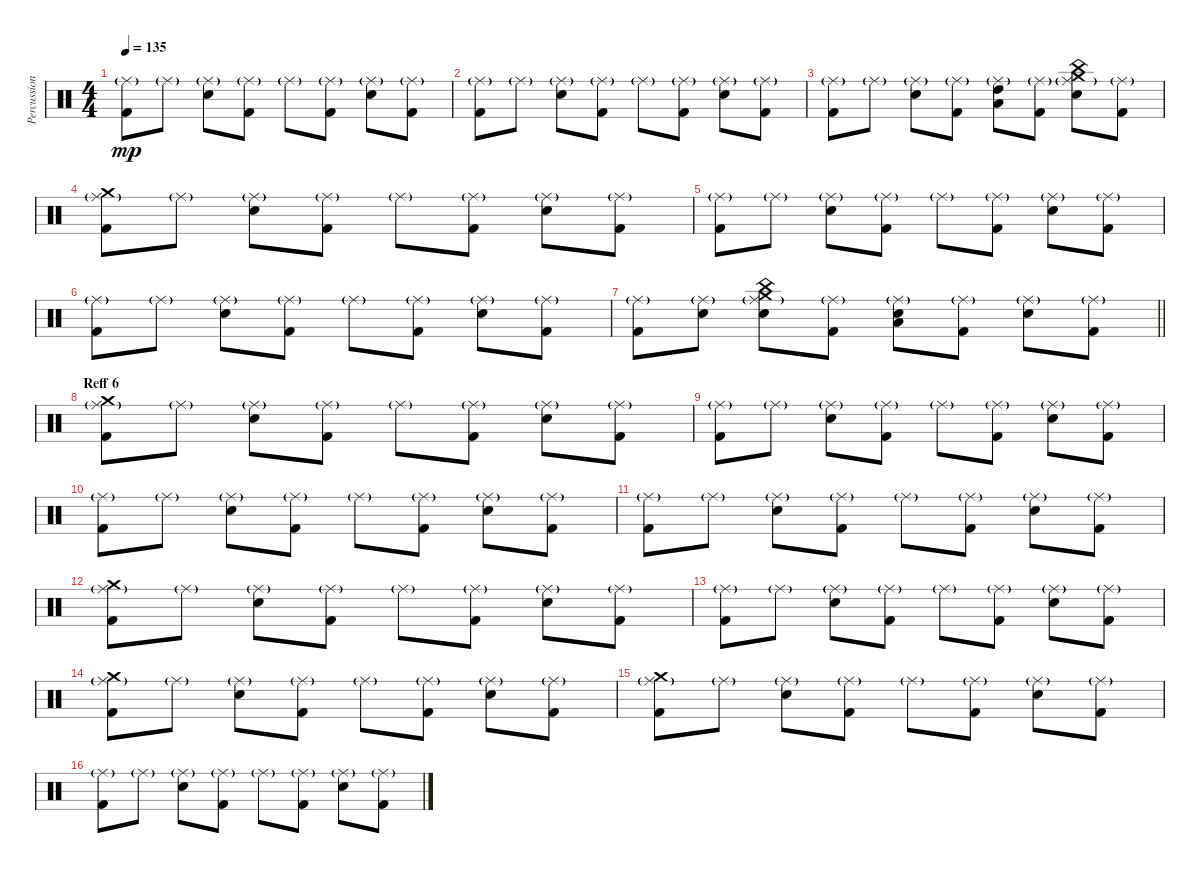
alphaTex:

\track ("Percussion 1" "Percussion") {instrument percussion}
\staff {score}
\articulation defaults
\ts (4 4)
\tempo 135
\clef neutral
\ks c
("Ride (middle)"{g} "Kick (hit) 2").8{dy mp} "Ride (middle)"{g}.8 ("Ride (middle)"{g} "Electric Snare (hit)").8 ("Ride (middle)"{g} "Kick (hit) 2").8 "Ride (middle)"{g}.8 ("Ride (middle)"{g} "Kick (hit) 2").8 ("Ride (middle)"{g} "Electric Snare (hit)").8 ("Ride (middle)"{g} "Kick (hit) 2").8 |
("Ride (middle)"{g} "Kick (hit) 2").8 "Ride (middle)"{g}.8 ("Ride (middle)"{g} "Electric Snare (hit)").8 ("Ride (middle)"{g} "Kick (hit) 2").8 "Ride (middle)"{g}.8 ("Ride (middle)"{g} "Kick (hit) 2").8 ("Ride (middle)"{g} "Electric Snare (hit)").8 ("Ride (middle)"{g} "Kick (hit) 2").8 |
("Ride (middle)"{g} "Kick (hit) 2").8 "Ride (middle)"{g}.8 ("Ride (middle)"{g} "Electric Snare (hit)").8 ("Ride (middle)"{g} "Kick (hit) 2").8 ("Ride (middle)"{g} "Low Tom (hit)" "High Tom (hit)").8 ("Ride (middle)"{g} "Kick (hit) 2").8 ("Ride (middle)"{g} "Electric Snare (hit)" "Crash medium (hit)" "China (hit)").8 ("Ride (middle)"{g} "Kick (hit) 2").8 |
("Ride (middle)"{g} "Crash medium (hit)" "Kick (hit) 2").8 "Ride (middle)"{g}.8 ("Ride (middle)"{g} "Electric Snare (hit)").8 ("Ride (middle)"{g} "Kick (hit) 2").8 "Ride (middle)"{g}.8 ("Ride (middle)"{g} "Kick (hit) 2").8 ("Ride (middle)"{g} "Electric Snare (hit)").8 ("Ride (middle)"{g} "Kick (hit) 2").8 |
("Ride (middle)"{g} "Kick (hit) 2").8 "Ride (middle)"{g}.8 ("Ride (middle)"{g} "Electric Snare (hit)").8 ("Ride (middle)"{g} "Kick (hit) 2").8 "Ride (middle)"{g}.8 ("Ride (middle)"{g} "Kick (hit) 2").8 ("Ride (middle)"{g} "Electric Snare (hit)").8 ("Ride (middle)"{g} "Kick (hit) 2").8 |
("Ride (middle)"{g} "Kick (hit) 2").8 "Ride (middle)"{g}.8 ("Ride (middle)"{g} "Electric Snare (hit)").8 ("Ride (middle)"{g} "Kick (hit) 2").8 "Ride (middle)"{g}.8 ("Ride (middle)"{g} "Kick (hit) 2").8 ("Ride (middle)"{g} "Electric Snare (hit)").8 ("Ride (middle)"{g} "Kick (hit) 2").8 |
\barLineRight lightlight
("Ride (middle)"{g} "Kick (hit) 2").8 ("Ride (middle)"{g} "Electric Snare (hit)").8 ("Ride (middle)"{g} "Electric Snare (hit)" "Crash medium (hit)" "China (hit)").8 ("Ride (middle)"{g} "Kick (hit) 2").8 ("Ride (middle)"{g} "Electric Snare (hit)" "Low Tom (hit)").8 ("Ride (middle)"{g} "Kick (hit) 2").8 ("Ride (middle)"{g} "Electric Snare (hit)").8 ("Ride (middle)"{g} "Kick (hit) 2").8 |
\section ("" "Reff 6")
("Ride (middle)"{g} "Crash medium (hit)" "Kick (hit) 2").8 "Ride (middle)"{g}.8 ("Ride (middle)"{g} "Electric Snare (hit)").8 ("Ride (middle)"{g} "Kick (hit) 2").8 "Ride (middle)"{g}.8 ("Ride (middle)"{g} "Kick (hit) 2").8 ("Ride (middle)"{g} "Electric Snare (hit)").8 ("Ride (middle)"{g} "Kick (hit) 2").8 |
("Ride (middle)"{g} "Kick (hit) 2").8 "Ride (middle)"{g}.8 ("Ride (middle)"{g} "Electric Snare (hit)").8 ("Ride (middle)"{g} "Kick (hit) 2").8 "Ride (middle)"{g}.8 ("Ride (middle)"{g} "Kick (hit) 2").8 ("Ride (middle)"{g} "Electric Snare (hit)").8 ("Ride (middle)"{g} "Kick (hit) 2").8 |
("Ride (middle)"{g} "Kick (hit) 2").8 "Ride (middle)"{g}.8 ("Ride (middle)"{g} "Electric Snare (hit)").8 ("Ride (middle)"{g} "Kick (hit) 2").8 "Ride (middle)"{g}.8 ("Ride (middle)"{g} "Kick (hit) 2").8 ("Ride (middle)"{g} "Electric Snare (hit)").8 ("Ride (middle)"{g} "Kick (hit) 2").8 |
("Ride (middle)"{g} "Kick (hit) 2").8 "Ride (middle)"{g}.8 ("Ride (middle)"{g} "Electric Snare (hit)").8 ("Ride (middle)"{g} "Kick (hit) 2").8 "Ride (middle)"{g}.8 ("Ride (middle)"{g} "Kick (hit) 2").8 ("Ride (middle)"{g} "Electric Snare (hit)").8 ("Ride (middle)"{g} "Kick (hit) 2").8 |
("Ride (middle)"{g} "Crash medium (hit)" "Kick (hit) 2").8 "Ride (middle)"{g}.8 ("Ride (middle)"{g} "Electric Snare (hit)").8 ("Ride (middle)"{g} "Kick (hit) 2").8 "Ride (middle)"{g}.8 ("Ride (middle)"{g} "Kick (hit) 2").8 ("Ride (middle)"{g} "Electric Snare (hit)").8 ("Ride (middle)"{g} "Kick (hit) 2").8 |
("Ride (middle)"{g} "Kick (hit) 2").8 "Ride (middle)"{g}.8 ("Ride (middle)"{g} "Electric Snare (hit)").8 ("Ride (middle)"{g} "Kick (hit) 2").8 "Ride (middle)"{g}.8 ("Ride (middle)"{g} "Kick (hit) 2").8 ("Ride (middle)"{g} "Electric Snare (hit)").8 ("Ride (middle)"{g} "Kick (hit) 2").8 |
("Ride (middle)"{g} "Crash medium (hit)" "Kick (hit) 2").8 "Ride (middle)"{g}.8 ("Ride (middle)"{g} "Electric Snare (hit)").8 ("Ride (middle)"{g} "Kick (hit) 2").8 "Ride (middle)"{g}.8 ("Ride (middle)"{g} "Kick (hit) 2").8 ("Ride (middle)"{g} "Electric Snare (hit)").8 ("Ride (middle)"{g} "Kick (hit) 2").8 |
("Ride (middle)"{g} "Crash medium (hit)" "Kick (hit) 2").8 "Ride (middle)"{g}.8 ("Ride (middle)"{g} "Electric Snare (hit)").8 ("Ride (middle)"{g} "Kick (hit) 2").8 "Ride (middle)"{g}.8 ("Ride (middle)"{g} "Kick (hit) 2").8 ("Ride (middle)"{g} "Electric Snare (hit)").8 ("Ride (middle)"{g} "Kick (hit) 2").8 |
("Ride (middle)"{g} "Kick (hit) 2").8 "Ride (middle)"{g}.8 ("Ride (middle)"{g} "Electric Snare (hit)").8 ("Ride (middle)"{g} "Kick (hit) 2").8 "Ride (middle)"{g}.8 ("Ride (middle)"{g} "Kick (hit) 2").8 ("Ride (middle)"{g} "Electric Snare (hit)").8 ("Ride (middle)"{g} "Kick (hit) 2").8
